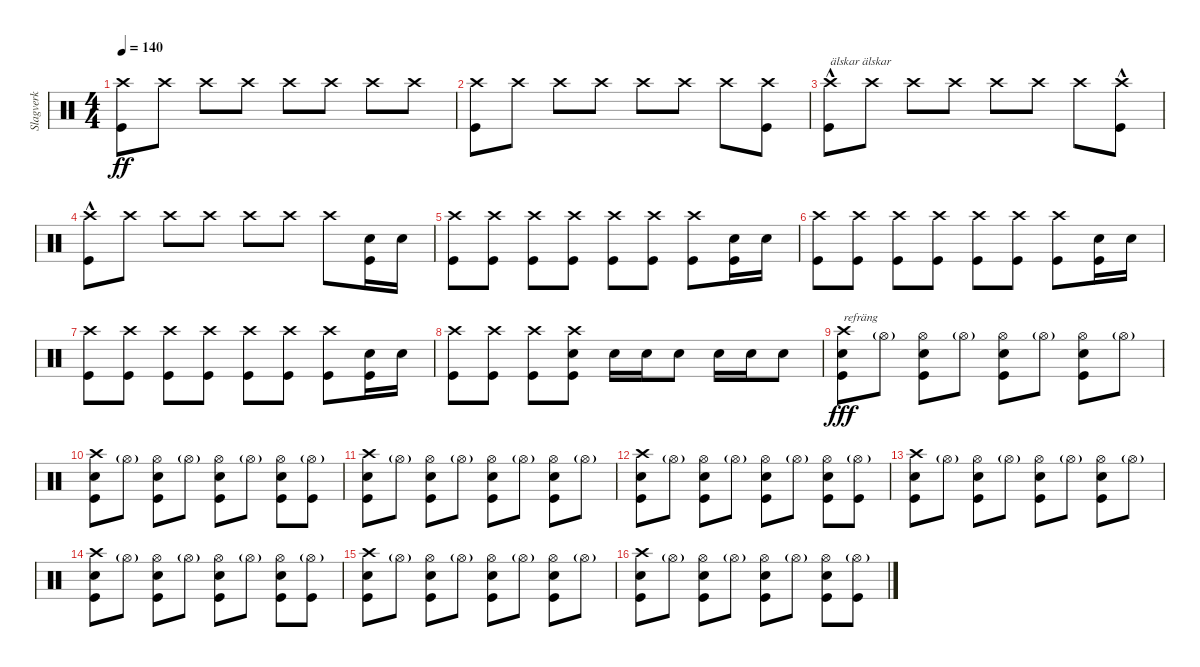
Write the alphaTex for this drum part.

\track ("Slagverk" "Slagverk") {instrument percussion}
\staff {score}
\articulation defaults
\ts (4 4)
\tempo 140
\clef neutral
\ks c
("Crash high (hit)" "Kick (hit)").8{dy ff} "Crash high (hit)".8 "Crash high (hit)".8 "Crash high (hit)".8 "Crash high (hit)".8 "Crash high (hit)".8 "Crash high (hit)".8 "Crash high (hit)".8 |
("Crash high (hit)" "Kick (hit)").8 "Crash high (hit)".8 "Crash high (hit)".8 "Crash high (hit)".8 "Crash high (hit)".8 "Crash high (hit)".8 "Crash high (hit)".8 ("Crash high (hit)" "Kick (hit)").8 |
("Crash high (hit)" "Kick (hit)"{hac}).8{txt "älskar älskar"} "Crash high (hit)".8 "Crash high (hit)".8 "Crash high (hit)".8 "Crash high (hit)".8 "Crash high (hit)".8 "Crash high (hit)".8 ("Crash high (hit)" "Kick (hit)"{hac}).8 |
("Crash high (hit)" "Kick (hit)"{hac}).8 "Crash high (hit)".8 "Crash high (hit)".8 "Crash high (hit)".8 "Crash high (hit)".8 "Crash high (hit)".8 "Crash high (hit)".8 ("Snare (hit) 2" "Kick (hit)").16 "Snare (hit) 2".16 |
("Crash high (hit)" "Kick (hit)").8 ("Crash high (hit)" "Kick (hit)").8 ("Crash high (hit)" "Kick (hit)").8 ("Crash high (hit)" "Kick (hit)").8 ("Crash high (hit)" "Kick (hit)").8 ("Crash high (hit)" "Kick (hit)").8 ("Crash high (hit)" "Kick (hit)").8 ("Snare (hit) 2" "Kick (hit)").16 "Snare (hit) 2".16 |
("Crash high (hit)" "Kick (hit)").8 ("Crash high (hit)" "Kick (hit)").8 ("Crash high (hit)" "Kick (hit)").8 ("Crash high (hit)" "Kick (hit)").8 ("Crash high (hit)" "Kick (hit)").8 ("Crash high (hit)" "Kick (hit)").8 ("Crash high (hit)" "Kick (hit)").8 ("Snare (hit) 2" "Kick (hit)").16 "Snare (hit) 2".16 |
("Crash high (hit)" "Kick (hit)").8 ("Crash high (hit)" "Kick (hit)").8 ("Crash high (hit)" "Kick (hit)").8 ("Crash high (hit)" "Kick (hit)").8 ("Crash high (hit)" "Kick (hit)").8 ("Crash high (hit)" "Kick (hit)").8 ("Crash high (hit)" "Kick (hit)").8 ("Snare (hit) 2" "Kick (hit)").16 "Snare (hit) 2".16 |
("Crash high (hit)" "Kick (hit)").8 ("Crash high (hit)" "Kick (hit)").8 ("Crash high (hit)" "Kick (hit)").8 ("Crash high (hit)" "Snare (hit) 2" "Kick (hit)").8 "Snare (hit) 2".16 "Snare (hit) 2".16 "Snare (hit) 2".8 "Snare (hit) 2".16 "Snare (hit) 2".16 "Snare (hit) 2".8 |
("Crash high (hit)" "Kick (hit)" "Snare (hit) 2").8{txt "refräng" dy fff} "Hi-Hat (open)"{g}.8 ("Hi-Hat (open)" "Kick (hit)" "Snare (hit) 2").8 "Hi-Hat (open)"{g}.8 ("Hi-Hat (open)" "Kick (hit)" "Snare (hit) 2").8 "Hi-Hat (open)"{g}.8 ("Hi-Hat (open)" "Kick (hit)" "Snare (hit) 2").8 "Hi-Hat (open)"{g}.8 |
("Crash high (hit)" "Kick (hit)" "Snare (hit) 2").8 "Hi-Hat (open)"{g}.8 ("Hi-Hat (open)" "Kick (hit)" "Snare (hit) 2").8 "Hi-Hat (open)"{g}.8 ("Hi-Hat (open)" "Kick (hit)" "Snare (hit) 2").8 "Hi-Hat (open)"{g}.8 ("Hi-Hat (open)" "Kick (hit)" "Snare (hit) 2").8 ("Hi-Hat (open)"{g} "Kick (hit)").8 |
("Crash high (hit)" "Kick (hit)" "Snare (hit) 2").8 "Hi-Hat (open)"{g}.8 ("Hi-Hat (open)" "Kick (hit)" "Snare (hit) 2").8 "Hi-Hat (open)"{g}.8 ("Hi-Hat (open)" "Kick (hit)" "Snare (hit) 2").8 "Hi-Hat (open)"{g}.8 ("Hi-Hat (open)" "Kick (hit)" "Snare (hit) 2").8 "Hi-Hat (open)"{g}.8 |
("Crash high (hit)" "Kick (hit)" "Snare (hit) 2").8 "Hi-Hat (open)"{g}.8 ("Hi-Hat (open)" "Kick (hit)" "Snare (hit) 2").8 "Hi-Hat (open)"{g}.8 ("Hi-Hat (open)" "Kick (hit)" "Snare (hit) 2").8 "Hi-Hat (open)"{g}.8 ("Hi-Hat (open)" "Kick (hit)" "Snare (hit) 2").8 ("Hi-Hat (open)"{g} "Kick (hit)").8 |
("Crash high (hit)" "Kick (hit)" "Snare (hit) 2").8 "Hi-Hat (open)"{g}.8 ("Hi-Hat (open)" "Kick (hit)" "Snare (hit) 2").8 "Hi-Hat (open)"{g}.8 ("Hi-Hat (open)" "Kick (hit)" "Snare (hit) 2").8 "Hi-Hat (open)"{g}.8 ("Hi-Hat (open)" "Kick (hit)" "Snare (hit) 2").8 "Hi-Hat (open)"{g}.8 |
("Crash high (hit)" "Kick (hit)" "Snare (hit) 2").8 "Hi-Hat (open)"{g}.8 ("Hi-Hat (open)" "Kick (hit)" "Snare (hit) 2").8 "Hi-Hat (open)"{g}.8 ("Hi-Hat (open)" "Kick (hit)" "Snare (hit) 2").8 "Hi-Hat (open)"{g}.8 ("Hi-Hat (open)" "Kick (hit)" "Snare (hit) 2").8 ("Hi-Hat (open)"{g} "Kick (hit)").8 |
("Crash high (hit)" "Kick (hit)" "Snare (hit) 2").8 "Hi-Hat (open)"{g}.8 ("Hi-Hat (open)" "Kick (hit)" "Snare (hit) 2").8 "Hi-Hat (open)"{g}.8 ("Hi-Hat (open)" "Kick (hit)" "Snare (hit) 2").8 "Hi-Hat (open)"{g}.8 ("Hi-Hat (open)" "Kick (hit)" "Snare (hit) 2").8 "Hi-Hat (open)"{g}.8 |
("Crash high (hit)" "Kick (hit)" "Snare (hit) 2").8 "Hi-Hat (open)"{g}.8 ("Hi-Hat (open)" "Kick (hit)" "Snare (hit) 2").8 "Hi-Hat (open)"{g}.8 ("Hi-Hat (open)" "Kick (hit)" "Snare (hit) 2").8 "Hi-Hat (open)"{g}.8 ("Hi-Hat (open)" "Kick (hit)" "Snare (hit) 2").8 ("Hi-Hat (open)"{g} "Kick (hit)").8
